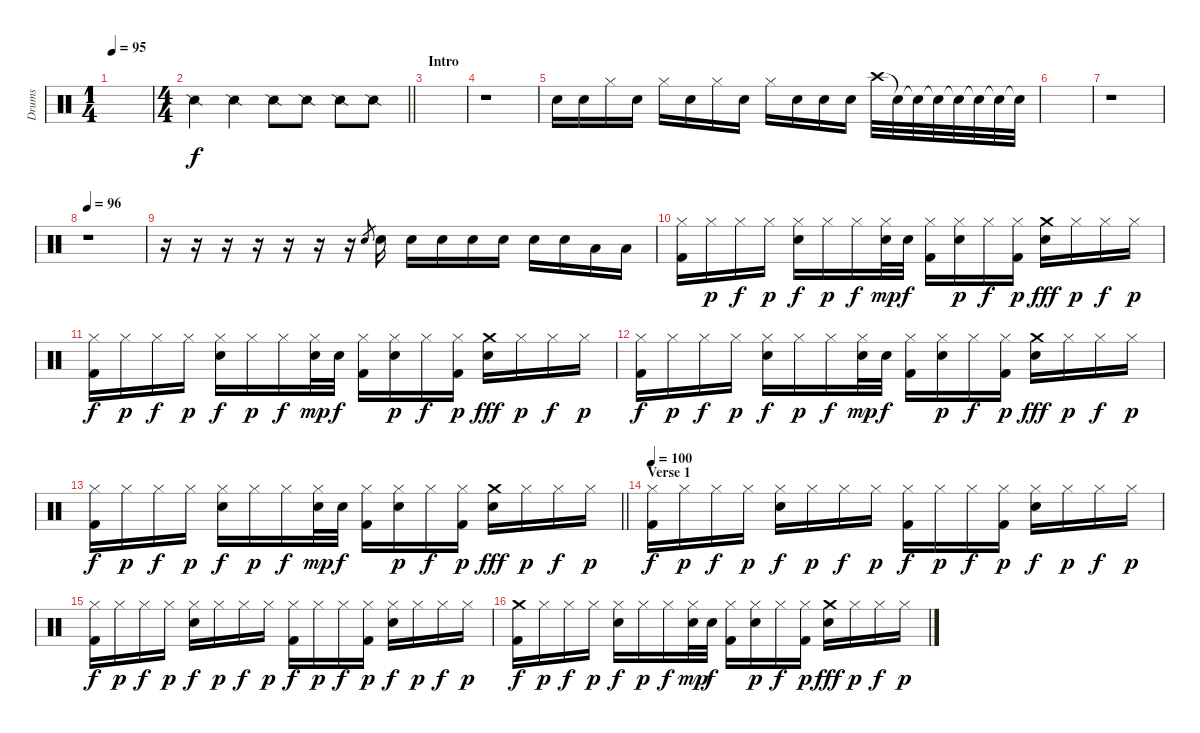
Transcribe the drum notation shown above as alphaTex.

\track ("Drums" "Drums") {instrument percussion}
\staff {score}
\articulation defaults
\ts (1 4)
\tempo 95
\clef neutral
\ks c
|
\ts (4 4)
\barLineRight lightlight "Snare (side stick) 2".4 "Snare (side stick) 2".4 "Snare (side stick) 2".8 "Snare (side stick) 2".8 "Snare (side stick) 2".8 "Snare (side stick) 2".8
|
\section ("" "Intro")
|
r.1 |
"Electric Snare (hit)".16 "Electric Snare (hit)".16 "Hi-Hat (closed)".16 "Electric Snare (hit)".16 "Hi-Hat (closed)".16 "Electric Snare (hit)".16 "Hi-Hat (closed)".16 "Electric Snare (hit)".16 "Hi-Hat (closed)".16 "Electric Snare (hit)".16 "Electric Snare (hit)".16 "Electric Snare (hit)".16 "Crash high (hit)".32 "Snare (hit)"{t}.32 "Snare (hit)"{t}.32 "Snare (hit)"{t}.32 "Snare (hit)"{t}.32 "Snare (hit)"{t}.32 "Snare (hit)"{t}.32 "Snare (hit)"{t}.32 |
|
r.1 |
\tempo 96
r.1 |
r.16 r.16 r.16 r.16 r.16 r.16 r.16 "Snare (hit) 2".8{gr} "Snare (hit) 2".16 "Snare (hit) 2".16 "Snare (hit) 2".16 "Snare (hit) 2".16 "Snare (hit) 2".16 "Snare (hit) 2".16 "Snare (hit) 2".16 "Low Tom (hit)".16 "Low Tom (hit)".16 |
("Hi-Hat (closed)" "Kick (hit) 2").16 "Hi-Hat (closed)".16{dy p} "Hi-Hat (closed)".16{dy f} "Hi-Hat (closed)".16{dy p} ("Hi-Hat (closed)" "Electric Snare (hit)").16{dy f} "Hi-Hat (closed)".16{dy p} "Hi-Hat (closed)".16{dy f} ("Hi-Hat (closed)" "Electric Snare (hit)").32{dy mp} "Electric Snare (hit)".32{dy f} ("Hi-Hat (closed)" "Kick (hit) 2").16 ("Hi-Hat (closed)" "Electric Snare (hit)").16{dy p} "Hi-Hat (closed)".16{dy f} ("Hi-Hat (closed)" "Kick (hit) 2").16{dy p} ("Crash medium (hit)" "Electric Snare (hit)").16{dy fff} "Hi-Hat (closed)".16{dy p} "Hi-Hat (closed)".16{dy f} "Hi-Hat (closed)".16{dy p} |
("Hi-Hat (closed)" "Kick (hit) 2").16{dy f} "Hi-Hat (closed)".16{dy p} "Hi-Hat (closed)".16{dy f} "Hi-Hat (closed)".16{dy p} ("Hi-Hat (closed)" "Electric Snare (hit)").16{dy f} "Hi-Hat (closed)".16{dy p} "Hi-Hat (closed)".16{dy f} ("Hi-Hat (closed)" "Electric Snare (hit)").32{dy mp} "Electric Snare (hit)".32{dy f} ("Hi-Hat (closed)" "Kick (hit) 2").16 ("Hi-Hat (closed)" "Electric Snare (hit)").16{dy p} "Hi-Hat (closed)".16{dy f} ("Hi-Hat (closed)" "Kick (hit) 2").16{dy p} ("Crash medium (hit)" "Electric Snare (hit)").16{dy fff} "Hi-Hat (closed)".16{dy p} "Hi-Hat (closed)".16{dy f} "Hi-Hat (closed)".16{dy p} |
("Hi-Hat (closed)" "Kick (hit) 2").16{dy f} "Hi-Hat (closed)".16{dy p} "Hi-Hat (closed)".16{dy f} "Hi-Hat (closed)".16{dy p} ("Hi-Hat (closed)" "Electric Snare (hit)").16{dy f} "Hi-Hat (closed)".16{dy p} "Hi-Hat (closed)".16{dy f} ("Hi-Hat (closed)" "Electric Snare (hit)").32{dy mp} "Electric Snare (hit)".32{dy f} ("Hi-Hat (closed)" "Kick (hit) 2").16 ("Hi-Hat (closed)" "Electric Snare (hit)").16{dy p} "Hi-Hat (closed)".16{dy f} ("Hi-Hat (closed)" "Kick (hit) 2").16{dy p} ("Crash medium (hit)" "Electric Snare (hit)").16{dy fff} "Hi-Hat (closed)".16{dy p} "Hi-Hat (closed)".16{dy f} "Hi-Hat (closed)".16{dy p} |
\barLineRight lightlight
("Hi-Hat (closed)" "Kick (hit) 2").16{dy f} "Hi-Hat (closed)".16{dy p} "Hi-Hat (closed)".16{dy f} "Hi-Hat (closed)".16{dy p} ("Hi-Hat (closed)" "Electric Snare (hit)").16{dy f} "Hi-Hat (closed)".16{dy p} "Hi-Hat (closed)".16{dy f} ("Hi-Hat (closed)" "Electric Snare (hit)").32{dy mp} "Electric Snare (hit)".32{dy f} ("Hi-Hat (closed)" "Kick (hit) 2").16 ("Hi-Hat (closed)" "Electric Snare (hit)").16{dy p} "Hi-Hat (closed)".16{dy f} ("Hi-Hat (closed)" "Kick (hit) 2").16{dy p} ("Crash medium (hit)" "Electric Snare (hit)").16{dy fff} "Hi-Hat (closed)".16{dy p} "Hi-Hat (closed)".16{dy f} "Hi-Hat (closed)".16{dy p} |
\section ("" "Verse 1")
\tempo 100
("Hi-Hat (closed)" "Kick (hit) 2").16{dy f} "Hi-Hat (closed)".16{dy p} "Hi-Hat (closed)".16{dy f} "Hi-Hat (closed)".16{dy p} ("Hi-Hat (closed)" "Electric Snare (hit)").16{dy f} "Hi-Hat (closed)".16{dy p} "Hi-Hat (closed)".16{dy f} "Hi-Hat (closed)".16{dy p} ("Hi-Hat (closed)" "Kick (hit) 2").16{dy f} "Hi-Hat (closed)".16{dy p} "Hi-Hat (closed)".16{dy f} ("Hi-Hat (closed)" "Kick (hit) 2").16{dy p} ("Hi-Hat (closed)" "Electric Snare (hit)").16{dy f} "Hi-Hat (closed)".16{dy p} "Hi-Hat (closed)".16{dy f} "Hi-Hat (closed)".16{dy p} |
("Hi-Hat (closed)" "Kick (hit) 2").16{dy f} "Hi-Hat (closed)".16{dy p} "Hi-Hat (closed)".16{dy f} "Hi-Hat (closed)".16{dy p} ("Hi-Hat (closed)" "Electric Snare (hit)").16{dy f} "Hi-Hat (closed)".16{dy p} "Hi-Hat (closed)".16{dy f} "Hi-Hat (closed)".16{dy p} ("Hi-Hat (closed)" "Kick (hit) 2").16{dy f} "Hi-Hat (closed)".16{dy p} "Hi-Hat (closed)".16{dy f} ("Hi-Hat (closed)" "Kick (hit) 2").16{dy p} ("Hi-Hat (closed)" "Electric Snare (hit)").16{dy f} "Hi-Hat (closed)".16{dy p} "Hi-Hat (closed)".16{dy f} "Hi-Hat (closed)".16{dy p} |
("Crash medium (hit)" "Kick (hit) 2").16{dy f} "Hi-Hat (closed)".16{dy p} "Hi-Hat (closed)".16{dy f} "Hi-Hat (closed)".16{dy p} ("Hi-Hat (closed)" "Electric Snare (hit)").16{dy f} "Hi-Hat (closed)".16{dy p} "Hi-Hat (closed)".16{dy f} ("Hi-Hat (closed)" "Electric Snare (hit)").32{dy mp} "Electric Snare (hit)".32{dy f} ("Hi-Hat (closed)" "Kick (hit) 2").16 ("Hi-Hat (closed)" "Electric Snare (hit)").16{dy p} "Hi-Hat (closed)".16{dy f} ("Hi-Hat (closed)" "Kick (hit) 2").16{dy p} ("Crash medium (hit)" "Electric Snare (hit)").16{dy fff} "Hi-Hat (closed)".16{dy p} "Hi-Hat (closed)".16{dy f} "Hi-Hat (closed)".16{dy p}
